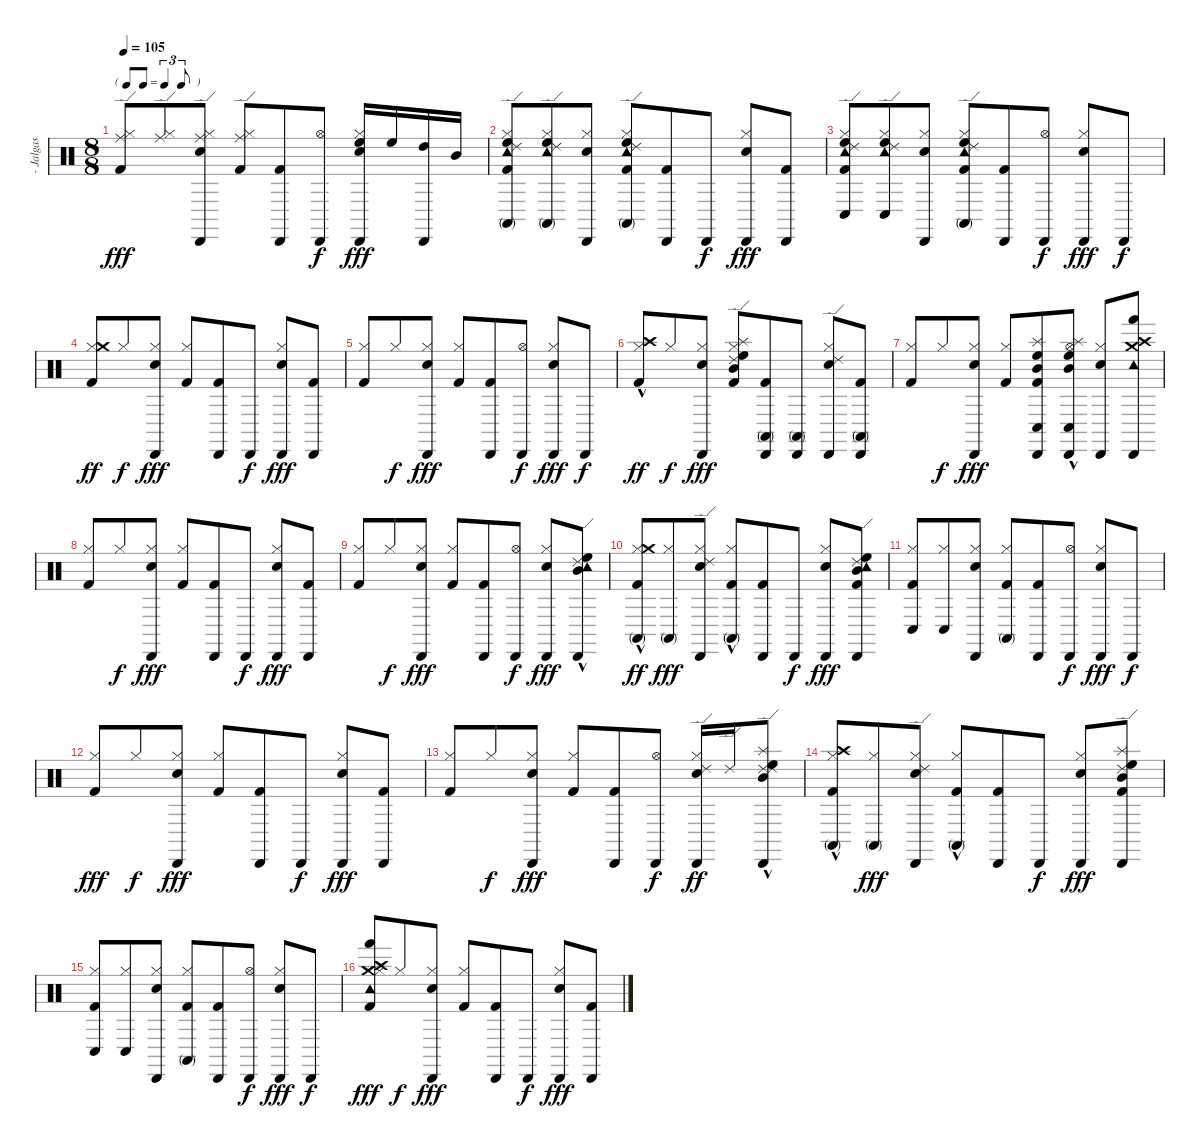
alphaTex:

\track (" - Jalgas -" " - Jalgas ") {instrument percussion}
\staff {score}
\articulation defaults
\ts (8 8)
\tf triplet8th
\tempo 105
\clef neutral
\ks c
("Ride (edge)" "Kick (hit) 2" "Hi-Hat (closed)").8{dy fff} ("Ride (edge)" "Hi-Hat (closed)").8 ("Ride (edge)" "Electric Snare (hit)" "Hi-Hat (closed)" "Cabasa (hit)").8 ("Ride (edge)" "Kick (hit) 2" "Hi-Hat (closed)").8 ("Kick (hit) 2" "Cabasa (hit)").8 ("Hi-Hat (open)" "Cabasa (hit)").8{dy f} ("Electric Snare (hit)" "Hi-Hat (closed)" "Cabasa (hit)" "High Floor Tom (hit)").16{dy fff} "High Floor Tom (hit)".16 ("Cabasa (hit)" "High Tom (hit)").16 "Mid Tom (hit)".16 |
("Conga high (mute)" "Ride (edge) 2" "High Floor Tom (hit)" "Tambourine (hit)" "Kick (hit) 2" "Hi-Hat (closed)").8 ("Conga high (mute)" "High Floor Tom (hit)" "Ride (edge) 2" "Tambourine (hit)" "Hi-Hat (closed)").8 ("Electric Snare (hit)" "Hi-Hat (closed)" "Cabasa (hit)").8 ("Conga high (mute)" "High Floor Tom (hit)" "Ride (edge) 2" "Tambourine (hit)" "Kick (hit) 2" "Hi-Hat (closed)").8 ("Kick (hit) 2" "Cabasa (hit)").8 "Cabasa (hit)".8{dy f} ("Electric Snare (hit)" "Hi-Hat (closed)" "Cabasa (hit)").8{dy fff} ("Kick (hit) 2" "Cabasa (hit)").8 |
("Ride (edge) 2" "Conga low (hit)" "High Floor Tom (hit)" "Tambourine (hit)" "Kick (hit) 2" "Hi-Hat (closed)").8 ("High Floor Tom (hit)" "Ride (edge) 2" "Tambourine (hit)" "Conga low (hit)" "Hi-Hat (closed)").8 ("Electric Snare (hit)" "Hi-Hat (closed)" "Cabasa (hit)").8 ("High Floor Tom (hit)" "Ride (edge) 2" "Tambourine (hit)" "Conga high (mute)" "Kick (hit) 2" "Hi-Hat (closed)").8 ("Kick (hit) 2" "Cabasa (hit)").8 ("Hi-Hat (open)" "Cabasa (hit)").8{dy f} ("Electric Snare (hit)" "Hi-Hat (closed)" "Cabasa (hit)").8{dy fff} "Cabasa (hit)".8{dy f} |
("Kick (hit) 2" "Hi-Hat (closed)" "Crash medium (hit)").8{dy ff} "Hi-Hat (closed)".8{dy f} ("Electric Snare (hit)" "Hi-Hat (closed)" "Cabasa (hit)").8{dy fff} ("Kick (hit) 2" "Hi-Hat (closed)").8 ("Kick (hit) 2" "Cabasa (hit)").8 "Cabasa (hit)".8{dy f} ("Electric Snare (hit)" "Hi-Hat (closed)" "Cabasa (hit)").8{dy fff} ("Kick (hit) 2" "Cabasa (hit)").8 |
("Kick (hit) 2" "Hi-Hat (closed)").8 "Hi-Hat (closed)".8{dy f} ("Electric Snare (hit)" "Hi-Hat (closed)" "Cabasa (hit)").8{dy fff} ("Kick (hit) 2" "Hi-Hat (closed)").8 ("Kick (hit) 2" "Cabasa (hit)").8 ("Hi-Hat (open)" "Cabasa (hit)").8{dy f} ("Electric Snare (hit)" "Hi-Hat (closed)" "Cabasa (hit)").8{dy fff} "Cabasa (hit)".8{dy f} |
("Kick (hit) 2" "Hi-Hat (closed)" "Crash high (hit)"{hac}).8{dy ff} "Hi-Hat (closed)".8{dy f} ("Electric Snare (hit)" "Hi-Hat (closed)" "Cabasa (hit)").8{dy fff} ("Splash (hit)" "High Floor Tom (hit)" "Mid Tom (hit)" "Ride (edge) 2" "Kick (hit) 2" "Hi-Hat (closed)").8 ("Conga high (mute)" "Kick (hit) 2" "Cabasa (hit)").8 ("Conga high (mute)" "Cabasa (hit)").8 ("Ride (edge) 2" "Electric Snare (hit)" "Hi-Hat (closed)" "Cabasa (hit)").8 ("Conga high (mute)" "Kick (hit) 2" "Cabasa (hit)").8 |
("Kick (hit) 2" "Hi-Hat (closed)").8 "Hi-Hat (closed)".8{dy f} ("Electric Snare (hit)" "Hi-Hat (closed)" "Cabasa (hit)").8{dy fff} ("Kick (hit) 2" "Hi-Hat (closed)").8 ("Splash (hit)" "High Floor Tom (hit)" "Conga low (hit)" "Mid Tom (hit)" "Kick (hit) 2" "Cabasa (hit)").8 ("Mid Tom (hit)"{hac} "Splash (hit)" "High Floor Tom (hit)"{hac} "Conga low (hit)" "Hi-Hat (open)" "Cabasa (hit)").8 ("Electric Snare (hit)" "Hi-Hat (closed)" "Cabasa (hit)").8 ("Crash high (hit)" "Tambourine (hit)" "Crash medium (hit)" "Hand (hit)" "Cabasa (hit)").8 |
("Kick (hit) 2" "Hi-Hat (closed)").8 "Hi-Hat (closed)".8{dy f} ("Electric Snare (hit)" "Hi-Hat (closed)" "Cabasa (hit)").8{dy fff} ("Kick (hit) 2" "Hi-Hat (closed)").8 ("Kick (hit) 2" "Cabasa (hit)").8 "Cabasa (hit)".8{dy f} ("Electric Snare (hit)" "Hi-Hat (closed)" "Cabasa (hit)").8{dy fff} ("Kick (hit) 2" "Cabasa (hit)").8 |
("Kick (hit) 2" "Hi-Hat (closed)").8 "Hi-Hat (closed)".8{dy f} ("Electric Snare (hit)" "Hi-Hat (closed)" "Cabasa (hit)").8{dy fff} ("Kick (hit) 2" "Hi-Hat (closed)").8 ("Kick (hit) 2" "Cabasa (hit)").8 ("Hi-Hat (open)" "Cabasa (hit)").8{dy f} ("Electric Snare (hit)" "Hi-Hat (closed)" "Cabasa (hit)").8{dy fff} ("Tambourine (hit)"{hac} "Mid Tom (hit)"{hac} "High Floor Tom (hit)"{hac} "Ride (edge) 2" "Cabasa (hit)").8 |
("Conga high (mute)" "Kick (hit) 2" "Hi-Hat (closed)" "Crash medium (hit)"{hac}).8{dy ff} ("Conga high (mute)" "Hi-Hat (closed)").8{dy fff} ("Ride (edge) 2" "Electric Snare (hit)" "Hi-Hat (closed)" "Cabasa (hit)").8 ("Conga high (mute)"{hac} "Kick (hit) 2" "Hi-Hat (closed)").8 ("Kick (hit) 2" "Cabasa (hit)").8 "Cabasa (hit)".8{dy f} ("Electric Snare (hit)" "Hi-Hat (closed)" "Cabasa (hit)").8{dy fff} ("Tambourine (hit)" "Mid Tom (hit)" "High Floor Tom (hit)" "Ride (edge) 2" "Kick (hit) 2" "Cabasa (hit)").8 |
("Conga low (hit)" "Kick (hit) 2" "Hi-Hat (closed)").8 ("Conga low (hit)" "Hi-Hat (closed)").8 ("Electric Snare (hit)" "Hi-Hat (closed)" "Cabasa (hit)").8 ("Conga high (mute)" "Kick (hit) 2" "Hi-Hat (closed)").8 ("Kick (hit) 2" "Cabasa (hit)").8 ("Hi-Hat (open)" "Cabasa (hit)").8{dy f} ("Electric Snare (hit)" "Hi-Hat (closed)" "Cabasa (hit)").8{dy fff} "Cabasa (hit)".8{dy f} |
("Kick (hit) 2" "Hi-Hat (closed)").8{dy fff} "Hi-Hat (closed)".8{dy f} ("Electric Snare (hit)" "Hi-Hat (closed)" "Cabasa (hit)").8{dy fff} ("Kick (hit) 2" "Hi-Hat (closed)").8 ("Kick (hit) 2" "Cabasa (hit)").8 "Cabasa (hit)".8{dy f} ("Electric Snare (hit)" "Hi-Hat (closed)" "Cabasa (hit)").8{dy fff} ("Kick (hit) 2" "Cabasa (hit)").8 |
("Kick (hit) 2" "Hi-Hat (closed)").8 "Hi-Hat (closed)".8{dy f} ("Electric Snare (hit)" "Hi-Hat (closed)" "Cabasa (hit)").8{dy fff} ("Kick (hit) 2" "Hi-Hat (closed)").8 ("Kick (hit) 2" "Cabasa (hit)").8 ("Hi-Hat (open)" "Cabasa (hit)").8{dy f} ("Electric Snare (hit)" "Hi-Hat (closed)" "Cabasa (hit)" "Ride (edge) 2").16{dy ff} "Ride (edge) 2".16 ("Splash (hit)"{hac} "High Floor Tom (hit)"{hac} "Ride (edge) 2" "Mid Tom (hit)"{hac} "Cabasa (hit)" "Ride (edge) 2").8 |
("Conga high (mute)" "Kick (hit) 2" "Hi-Hat (closed)" "Crash high (hit)"{hac}).8 ("Conga high (mute)" "Hi-Hat (closed)").8{dy fff} ("Ride (edge) 2" "Electric Snare (hit)" "Hi-Hat (closed)" "Cabasa (hit)").8 ("Conga high (mute)"{hac} "Kick (hit) 2" "Hi-Hat (closed)").8 ("Kick (hit) 2" "Cabasa (hit)").8 "Cabasa (hit)".8{dy f} ("Electric Snare (hit)" "Hi-Hat (closed)" "Cabasa (hit)").8{dy fff} ("Ride (edge) 2" "Splash (hit)" "Mid Tom (hit)" "High Floor Tom (hit)" "Kick (hit) 2" "Cabasa (hit)").8 |
("Conga low (hit)" "Kick (hit) 2" "Hi-Hat (closed)").8 ("Conga low (hit)" "Hi-Hat (closed)").8 ("Electric Snare (hit)" "Hi-Hat (closed)" "Cabasa (hit)").8 ("Conga high (mute)" "Kick (hit) 2" "Hi-Hat (closed)").8 ("Kick (hit) 2" "Cabasa (hit)").8 ("Hi-Hat (open)" "Cabasa (hit)").8{dy f} ("Electric Snare (hit)" "Hi-Hat (closed)" "Cabasa (hit)").8{dy fff} "Cabasa (hit)".8{dy f} |
("Tambourine (hit)" "Crash medium (hit)" "Hand (hit)" "Crash high (hit)" "Kick (hit) 2" "Hi-Hat (closed)").8{dy fff} "Hi-Hat (closed)".8{dy f} ("Electric Snare (hit)" "Hi-Hat (closed)" "Cabasa (hit)").8{dy fff} ("Kick (hit) 2" "Hi-Hat (closed)").8 ("Kick (hit) 2" "Cabasa (hit)").8 "Cabasa (hit)".8{dy f} ("Electric Snare (hit)" "Hi-Hat (closed)" "Cabasa (hit)").8{dy fff} ("Kick (hit) 2" "Cabasa (hit)").8
